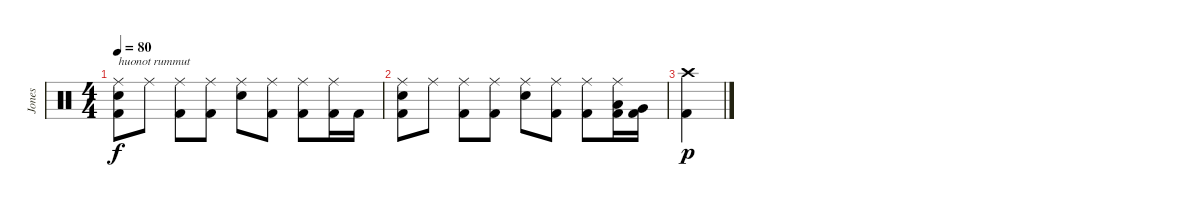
\track ("Jones" "Jones") {instrument percussion}
\staff {score}
\articulation defaults
\ts (4 4)
\tempo 80
\clef neutral
\ks c
("Ride (middle)" "Snare (hit) 2" "Kick (hit) 2").8{txt "huonot rummut" dy f} "Ride (middle)".8 ("Ride (middle)" "Kick (hit) 2").8 ("Ride (middle)" "Kick (hit) 2").8 ("Ride (middle)" "Snare (hit) 2").8 ("Ride (middle)" "Kick (hit) 2").8 ("Ride (middle)" "Kick (hit) 2").8 ("Ride (middle)" "Kick (hit) 2").16 "Kick (hit) 2".16 |
("Ride (middle)" "Snare (hit) 2" "Kick (hit) 2").8 "Ride (middle)".8 ("Ride (middle)" "Kick (hit) 2").8 ("Ride (middle)" "Kick (hit) 2").8 ("Ride (middle)" "Snare (hit) 2").8 ("Ride (middle)" "Kick (hit) 2").8 ("Ride (middle)" "Kick (hit) 2").8 ("Ride (middle)" "Low Tom (hit)" "Kick (hit) 2").16 ("Very Low Tom (hit)" "Kick (hit) 2").16 |
("Crash high (hit)" "Kick (hit) 2").4{dy p}
